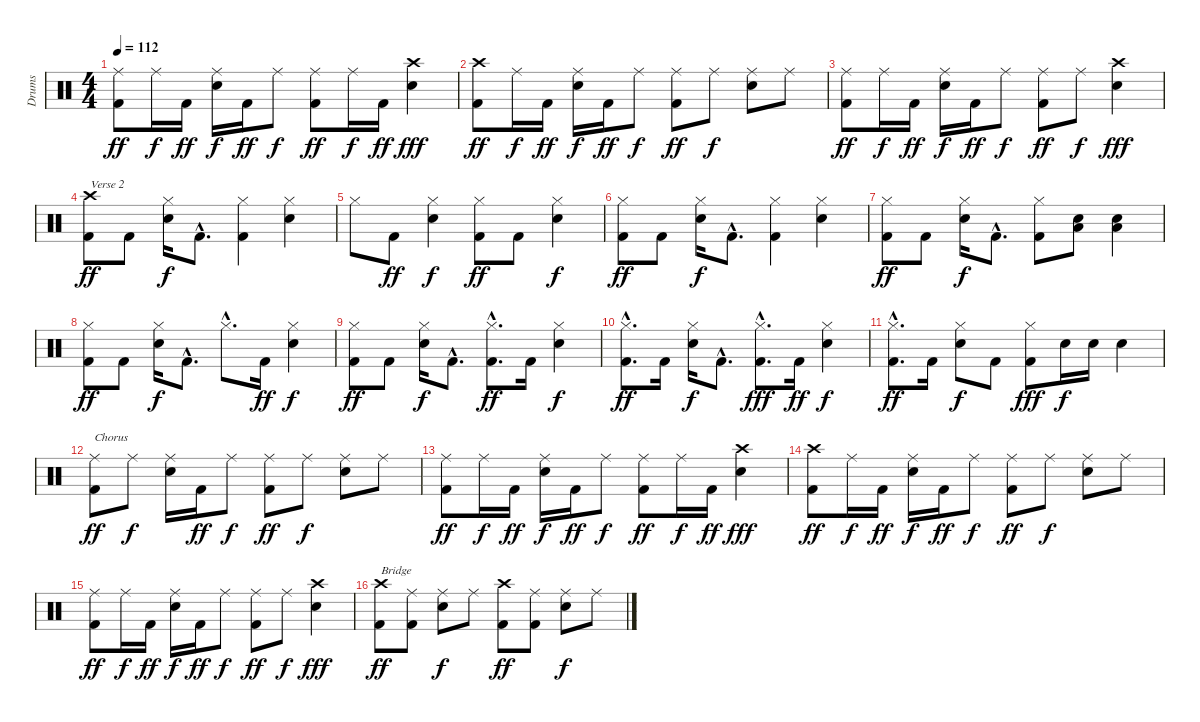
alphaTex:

\track ("Drums" "Drums") {instrument percussion}
\staff {score}
\articulation defaults
\ts (4 4)
\tempo 112
\clef neutral
\ks c
("Ride (middle)" "Kick (hit) 2").8{dy ff} "Ride (middle)".16{dy f} "Kick (hit) 2".16{dy ff} ("Ride (middle)" "Snare (hit) 2").16{dy f} "Kick (hit) 2".16{dy ff} "Ride (middle)".8{dy f} ("Ride (middle)" "Kick (hit) 2").8{dy ff} "Ride (middle)".16{dy f} "Kick (hit) 2".16{dy ff} ("Crash high (hit)" "Snare (hit) 2").4{dy fff} |
("Crash high (hit)" "Kick (hit) 2").8{dy ff} "Ride (middle)".16{dy f} "Kick (hit) 2".16{dy ff} ("Ride (middle)" "Snare (hit) 2").16{dy f} "Kick (hit) 2".16{dy ff} "Ride (middle)".8{dy f} ("Ride (middle)" "Kick (hit) 2").8{dy ff} "Ride (middle)".8{dy f} ("Ride (middle)" "Snare (hit) 2").8 "Ride (middle)".8 |
("Ride (middle)" "Kick (hit) 2").8{dy ff} "Ride (middle)".16{dy f} "Kick (hit) 2".16{dy ff} ("Ride (middle)" "Snare (hit) 2").16{dy f} "Kick (hit) 2".16{dy ff} "Ride (middle)".8{dy f} ("Ride (middle)" "Kick (hit) 2").8{dy ff} "Ride (middle)".8{dy f} ("Crash high (hit)" "Snare (hit) 2").4{dy fff} |
("Crash high (hit)" "Kick (hit) 2").8{txt "Verse 2" dy ff} "Kick (hit) 2".8 ("Hi-Hat (closed)" "Snare (hit) 2").16{dy f} "Kick (hit) 2"{hac}.8{d} ("Hi-Hat (closed)" "Kick (hit) 2").4 ("Hi-Hat (closed)" "Snare (hit) 2").4 |
"Hi-Hat (closed)".8 "Kick (hit) 2".8{dy ff} ("Hi-Hat (closed)" "Snare (hit) 2").4{dy f} ("Hi-Hat (closed)" "Kick (hit) 2").8{dy ff} "Kick (hit) 2".8 ("Hi-Hat (closed)" "Snare (hit) 2").4{dy f} |
("Hi-Hat (closed)" "Kick (hit) 2").8{dy ff} "Kick (hit) 2".8 ("Hi-Hat (closed)" "Snare (hit) 2").16{dy f} "Kick (hit) 2"{hac}.8{d} ("Hi-Hat (closed)" "Kick (hit) 2").4 ("Hi-Hat (closed)" "Snare (hit) 2").4 |
("Hi-Hat (closed)" "Kick (hit) 2").8{dy ff} "Kick (hit) 2".8 ("Hi-Hat (closed)" "Snare (hit) 2").16{dy f} "Kick (hit) 2"{hac}.8{d} ("Hi-Hat (closed)" "Kick (hit) 2").8 ("Snare (hit) 2" "Low Floor Tom (hit)").8 ("Snare (hit) 2" "Low Floor Tom (hit)").4 |
("Hi-Hat (closed)" "Kick (hit) 2").8{dy ff} "Kick (hit) 2".8 ("Hi-Hat (closed)" "Snare (hit) 2").16{dy f} "Kick (hit) 2"{hac}.8{d} "Hi-Hat (closed)"{hac}.8{d} "Kick (hit) 2".16{dy ff} ("Hi-Hat (closed)" "Snare (hit) 2").4{dy f} |
("Hi-Hat (closed)" "Kick (hit) 2").8{dy ff} "Kick (hit) 2".8 ("Hi-Hat (closed)" "Snare (hit) 2").16{dy f} "Kick (hit) 2"{hac}.8{d} ("Hi-Hat (closed)"{hac} "Kick (hit) 2"{hac}).8{d dy ff} "Kick (hit) 2".16 ("Hi-Hat (closed)" "Snare (hit) 2").4{dy f} |
("Hi-Hat (closed)"{hac} "Kick (hit) 2"{hac}).8{d dy ff} "Kick (hit) 2".16 ("Hi-Hat (closed)" "Snare (hit) 2").16{dy f} "Kick (hit) 2"{hac}.8{d} ("Hi-Hat (closed)"{hac} "Kick (hit) 2"{hac}).8{d dy fff} "Kick (hit) 2".16{dy ff} ("Hi-Hat (closed)" "Snare (hit) 2").4{dy f} |
("Hi-Hat (closed)"{hac} "Kick (hit) 2"{hac}).8{d dy ff} "Kick (hit) 2".16 ("Hi-Hat (closed)" "Snare (hit) 2").8{dy f} "Kick (hit) 2".8 ("Hi-Hat (closed)" "Kick (hit) 2").8{dy fff} "Snare (hit) 2".16{dy f} "Snare (hit) 2".16 "Snare (hit) 2".4 |
("Ride (middle)" "Kick (hit) 2").8{txt "Chorus" dy ff} "Ride (middle)".8{dy f} ("Ride (middle)" "Snare (hit) 2").16 "Kick (hit) 2".16{dy ff} "Ride (middle)".8{dy f} ("Ride (middle)" "Kick (hit) 2").8{dy ff} "Ride (middle)".8{dy f} ("Ride (middle)" "Snare (hit) 2").8 "Ride (middle)".8 |
("Ride (middle)" "Kick (hit) 2").8{dy ff} "Ride (middle)".16{dy f} "Kick (hit) 2".16{dy ff} ("Ride (middle)" "Snare (hit) 2").16{dy f} "Kick (hit) 2".16{dy ff} "Ride (middle)".8{dy f} ("Ride (middle)" "Kick (hit) 2").8{dy ff} "Ride (middle)".16{dy f} "Kick (hit) 2".16{dy ff} ("Crash high (hit)" "Snare (hit) 2").4{dy fff} |
("Crash high (hit)" "Kick (hit) 2").8{dy ff} "Ride (middle)".16{dy f} "Kick (hit) 2".16{dy ff} ("Ride (middle)" "Snare (hit) 2").16{dy f} "Kick (hit) 2".16{dy ff} "Ride (middle)".8{dy f} ("Ride (middle)" "Kick (hit) 2").8{dy ff} "Ride (middle)".8{dy f} ("Ride (middle)" "Snare (hit) 2").8 "Ride (middle)".8 |
("Ride (middle)" "Kick (hit) 2").8{dy ff} "Ride (middle)".16{dy f} "Kick (hit) 2".16{dy ff} ("Ride (middle)" "Snare (hit) 2").16{dy f} "Kick (hit) 2".16{dy ff} "Ride (middle)".8{dy f} ("Ride (middle)" "Kick (hit) 2").8{dy ff} "Ride (middle)".8{dy f} ("Crash high (hit)" "Snare (hit) 2").4{dy fff} |
("Crash high (hit)" "Kick (hit) 2").8{txt "Bridge" dy ff} ("Ride (middle)" "Kick (hit) 2").8 ("Ride (middle)" "Snare (hit) 2").8{dy f} "Ride (middle)".8 ("Crash high (hit)" "Kick (hit) 2").8{dy ff} ("Ride (middle)" "Kick (hit) 2").8 ("Ride (middle)" "Snare (hit) 2").8{dy f} "Ride (middle)".8
